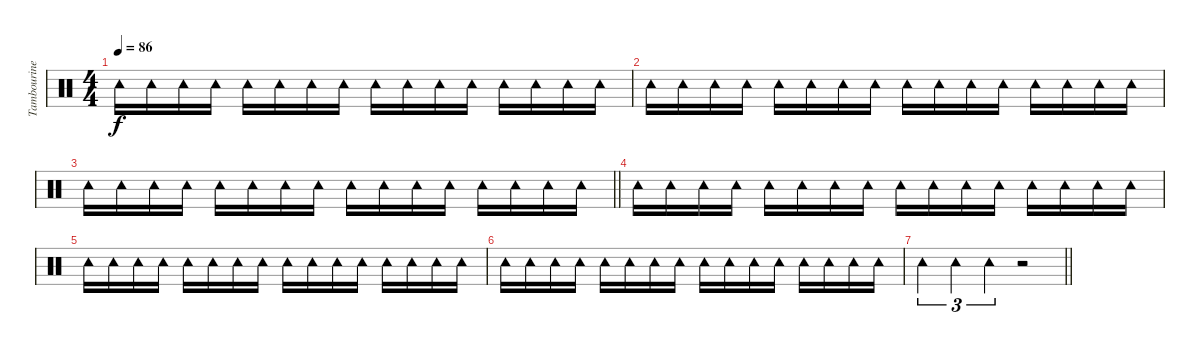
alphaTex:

\track ("Tambourine" "Tambourine") {instrument percussion}
\staff {score}
\articulation defaults
\ts (4 4)
\tempo 86
\clef neutral
\ks c "Tambourine (hit)".16{dy f} "Tambourine (hit)".16 "Tambourine (hit)".16 "Tambourine (hit)".16 "Tambourine (hit)".16 "Tambourine (hit)".16 "Tambourine (hit)".16 "Tambourine (hit)".16 "Tambourine (hit)".16 "Tambourine (hit)".16 "Tambourine (hit)".16 "Tambourine (hit)".16 "Tambourine (hit)".16 "Tambourine (hit)".16 "Tambourine (hit)".16 "Tambourine (hit)".16
|
"Tambourine (hit)".16 "Tambourine (hit)".16 "Tambourine (hit)".16 "Tambourine (hit)".16 "Tambourine (hit)".16 "Tambourine (hit)".16 "Tambourine (hit)".16 "Tambourine (hit)".16 "Tambourine (hit)".16 "Tambourine (hit)".16 "Tambourine (hit)".16 "Tambourine (hit)".16 "Tambourine (hit)".16 "Tambourine (hit)".16 "Tambourine (hit)".16 "Tambourine (hit)".16 |
\barLineRight lightlight "Tambourine (hit)".16 "Tambourine (hit)".16 "Tambourine (hit)".16 "Tambourine (hit)".16 "Tambourine (hit)".16 "Tambourine (hit)".16 "Tambourine (hit)".16 "Tambourine (hit)".16 "Tambourine (hit)".16 "Tambourine (hit)".16 "Tambourine (hit)".16 "Tambourine (hit)".16 "Tambourine (hit)".16 "Tambourine (hit)".16 "Tambourine (hit)".16 "Tambourine (hit)".16
|
"Tambourine (hit)".16 "Tambourine (hit)".16 "Tambourine (hit)".16 "Tambourine (hit)".16 "Tambourine (hit)".16 "Tambourine (hit)".16 "Tambourine (hit)".16 "Tambourine (hit)".16 "Tambourine (hit)".16 "Tambourine (hit)".16 "Tambourine (hit)".16 "Tambourine (hit)".16 "Tambourine (hit)".16 "Tambourine (hit)".16 "Tambourine (hit)".16 "Tambourine (hit)".16 |
"Tambourine (hit)".16 "Tambourine (hit)".16 "Tambourine (hit)".16 "Tambourine (hit)".16 "Tambourine (hit)".16 "Tambourine (hit)".16 "Tambourine (hit)".16 "Tambourine (hit)".16 "Tambourine (hit)".16 "Tambourine (hit)".16 "Tambourine (hit)".16 "Tambourine (hit)".16 "Tambourine (hit)".16 "Tambourine (hit)".16 "Tambourine (hit)".16 "Tambourine (hit)".16 |
"Tambourine (hit)".16 "Tambourine (hit)".16 "Tambourine (hit)".16 "Tambourine (hit)".16 "Tambourine (hit)".16 "Tambourine (hit)".16 "Tambourine (hit)".16 "Tambourine (hit)".16 "Tambourine (hit)".16 "Tambourine (hit)".16 "Tambourine (hit)".16 "Tambourine (hit)".16 "Tambourine (hit)".16 "Tambourine (hit)".16 "Tambourine (hit)".16 "Tambourine (hit)".16 |
\barLineRight lightlight "Tambourine (hit)".4{tu (3 2)} "Tambourine (hit)".4{tu (3 2)} "Tambourine (hit)".4{tu (3 2)}
r.2
